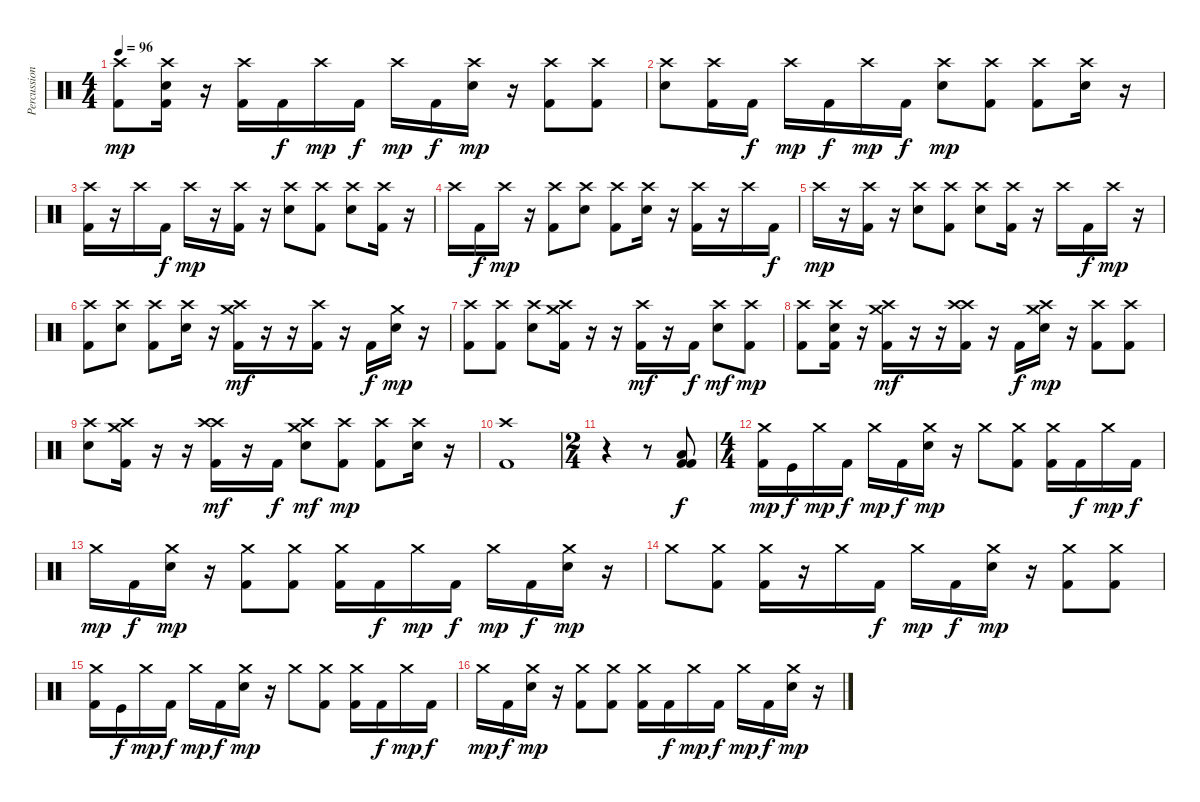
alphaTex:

\track ("Percussions" "Percussion") {instrument percussion}
\staff {score}
\articulation defaults
\ts (4 4)
\tempo 96
\clef neutral
\ks c
("Crash high (hit)" "Kick (hit) 2").8{dy mp} ("Crash high (hit)" "Snare (hit) 2" "Kick (hit) 2").16 r.16 ("Crash high (hit)" "Kick (hit) 2").16 "Kick (hit) 2".16{dy f} "Crash high (hit)".16{dy mp} "Kick (hit) 2".16{dy f} "Crash high (hit)".16{dy mp} "Kick (hit) 2".16{dy f} ("Crash high (hit)" "Snare (hit) 2").16{dy mp} r.16 ("Crash high (hit)" "Kick (hit) 2").8 ("Crash high (hit)" "Kick (hit) 2").8 |
("Crash high (hit)" "Snare (hit) 2").8 ("Crash high (hit)" "Kick (hit) 2").16 "Kick (hit) 2".16{dy f} "Crash high (hit)".16{dy mp} "Kick (hit) 2".16{dy f} "Crash high (hit)".16{dy mp} "Kick (hit) 2".16{dy f} ("Crash high (hit)" "Snare (hit) 2").8{dy mp} ("Crash high (hit)" "Kick (hit) 2").8 ("Crash high (hit)" "Kick (hit) 2").8 ("Crash high (hit)" "Snare (hit) 2").16 r.16 |
("Crash high (hit)" "Kick (hit) 2").16 r.16 "Crash high (hit)".16 "Kick (hit) 2".16{dy f} "Crash high (hit)".16{dy mp} r.16 ("Crash high (hit)" "Kick (hit) 2").16 r.16 ("Crash high (hit)" "Snare (hit) 2").8 ("Crash high (hit)" "Kick (hit) 2").8 ("Crash high (hit)" "Snare (hit) 2").8 ("Crash high (hit)" "Kick (hit) 2").16 r.16 |
"Crash high (hit)".16 "Kick (hit) 2".16{dy f} "Crash high (hit)".16{dy mp} r.16 ("Crash high (hit)" "Kick (hit) 2").8 ("Crash high (hit)" "Snare (hit) 2").8 ("Crash high (hit)" "Kick (hit) 2").8 ("Crash high (hit)" "Snare (hit) 2").16 r.16 ("Crash high (hit)" "Kick (hit) 2").16 r.16 "Crash high (hit)".16 "Kick (hit) 2".16{dy f} |
"Crash high (hit)".16{dy mp} r.16 ("Crash high (hit)" "Kick (hit) 2").16 r.16 ("Crash high (hit)" "Snare (hit) 2").8 ("Crash high (hit)" "Kick (hit) 2").8 ("Crash high (hit)" "Snare (hit) 2").8 ("Crash high (hit)" "Kick (hit) 2").16 r.16 "Crash high (hit)".16 "Kick (hit) 2".16{dy f} "Crash high (hit)".16{dy mp} r.16 |
("Crash high (hit)" "Kick (hit) 2").8 ("Crash high (hit)" "Snare (hit) 2").8 ("Crash high (hit)" "Kick (hit) 2").8 ("Crash high (hit)" "Snare (hit) 2").16 r.16 ("Crash high (hit)" "Crash medium (hit)" "Kick (hit) 2").16{dy mf} r.16 r.16 ("Crash high (hit)" "Kick (hit) 2").16 r.16 "Kick (hit) 2".16{dy f} ("Crash medium (hit)" "Snare (hit) 2").16{dy mp} r.16 |
("Crash high (hit)" "Kick (hit) 2").8 ("Crash high (hit)" "Kick (hit) 2").8 ("Crash high (hit)" "Snare (hit) 2").8 ("Crash high (hit)" "Crash medium (hit)" "Kick (hit) 2").16 r.16 r.16 ("Crash high (hit)" "Kick (hit) 2").16{dy mf} r.16 "Kick (hit) 2".16{dy f} ("Crash high (hit)" "Snare (hit) 2").8{dy mf} ("Crash high (hit)" "Kick (hit) 2").8{dy mp} |
("Crash high (hit)" "Kick (hit) 2").8 ("Crash high (hit)" "Snare (hit) 2" "Kick (hit) 2").16 r.16 ("Crash high (hit)" "Crash medium (hit)" "Kick (hit) 2").16{dy mf} r.16 r.16 ("Crash high (hit)" "Crash high (hit)" "Kick (hit) 2").16 r.16 "Kick (hit) 2".16{dy f} ("Crash high (hit)" "Crash medium (hit)" "Snare (hit) 2").16{dy mp} r.16 ("Crash high (hit)" "Kick (hit) 2").8 ("Crash high (hit)" "Kick (hit) 2").8 |
("Crash high (hit)" "Snare (hit) 2").8 ("Crash high (hit)" "Crash medium (hit)" "Kick (hit) 2").16 r.16 r.16 ("Crash high (hit)" "Crash high (hit)" "Kick (hit) 2").16{dy mf} r.16 "Kick (hit) 2".16{dy f} ("Crash high (hit)" "Crash medium (hit)" "Snare (hit) 2").8{dy mf} ("Crash high (hit)" "Kick (hit) 2").8{dy mp} ("Crash high (hit)" "Kick (hit) 2").8 ("Crash high (hit)" "Snare (hit) 2").16 r.16 |
("Crash high (hit)" "Kick (hit) 2").1 |
\ts (2 4)
r.4 r.8 ("Low Floor Tom (hit)" "Kick (hit) 2" "Kick (hit) 2").8{dy f} |
\ts (4 4)
("Crash medium (hit)" "Kick (hit) 2").16{dy mp} "Kick (hit)".16{dy f} "Crash medium (hit)".16{dy mp} "Kick (hit) 2".16{dy f} "Crash medium (hit)".16{dy mp} "Kick (hit) 2".16{dy f} ("Crash medium (hit)" "Snare (hit) 2").16{dy mp} r.16 "Crash medium (hit)".8 ("Crash medium (hit)" "Kick (hit) 2").8 ("Crash medium (hit)" "Kick (hit) 2").16 "Kick (hit) 2".16{dy f} "Crash medium (hit)".16{dy mp} "Kick (hit) 2".16{dy f} |
"Crash medium (hit)".16{dy mp} "Kick (hit) 2".16{dy f} ("Crash medium (hit)" "Snare (hit) 2").16{dy mp} r.16 ("Crash medium (hit)" "Kick (hit) 2").8 ("Crash medium (hit)" "Kick (hit) 2").8 ("Crash medium (hit)" "Kick (hit) 2").16 "Kick (hit) 2".16{dy f} "Crash medium (hit)".16{dy mp} "Kick (hit) 2".16{dy f} "Crash medium (hit)".16{dy mp} "Kick (hit) 2".16{dy f} ("Crash medium (hit)" "Snare (hit) 2").16{dy mp} r.16 |
"Crash medium (hit)".8 ("Crash medium (hit)" "Kick (hit) 2").8 ("Crash medium (hit)" "Kick (hit) 2").16 r.16 "Crash medium (hit)".16 "Kick (hit) 2".16{dy f} "Crash medium (hit)".16{dy mp} "Kick (hit) 2".16{dy f} ("Crash medium (hit)" "Snare (hit) 2").16{dy mp} r.16 ("Crash medium (hit)" "Kick (hit) 2").8 ("Crash medium (hit)" "Kick (hit) 2").8 |
("Crash medium (hit)" "Kick (hit) 2").16 "Kick (hit)".16{dy f} "Crash medium (hit)".16{dy mp} "Kick (hit) 2".16{dy f} "Crash medium (hit)".16{dy mp} "Kick (hit) 2".16{dy f} ("Crash medium (hit)" "Snare (hit) 2").16{dy mp} r.16 "Crash medium (hit)".8 ("Crash medium (hit)" "Kick (hit) 2").8 ("Crash medium (hit)" "Kick (hit) 2").16 "Kick (hit) 2".16{dy f} "Crash medium (hit)".16{dy mp} "Kick (hit) 2".16{dy f} |
"Crash medium (hit)".16{dy mp} "Kick (hit) 2".16{dy f} ("Crash medium (hit)" "Snare (hit) 2").16{dy mp} r.16 ("Crash medium (hit)" "Kick (hit) 2").8 ("Crash medium (hit)" "Kick (hit) 2").8 ("Crash medium (hit)" "Kick (hit) 2").16 "Kick (hit) 2".16{dy f} "Crash medium (hit)".16{dy mp} "Kick (hit) 2".16{dy f} "Crash medium (hit)".16{dy mp} "Kick (hit) 2".16{dy f} ("Crash medium (hit)" "Snare (hit) 2").16{dy mp} r.16
